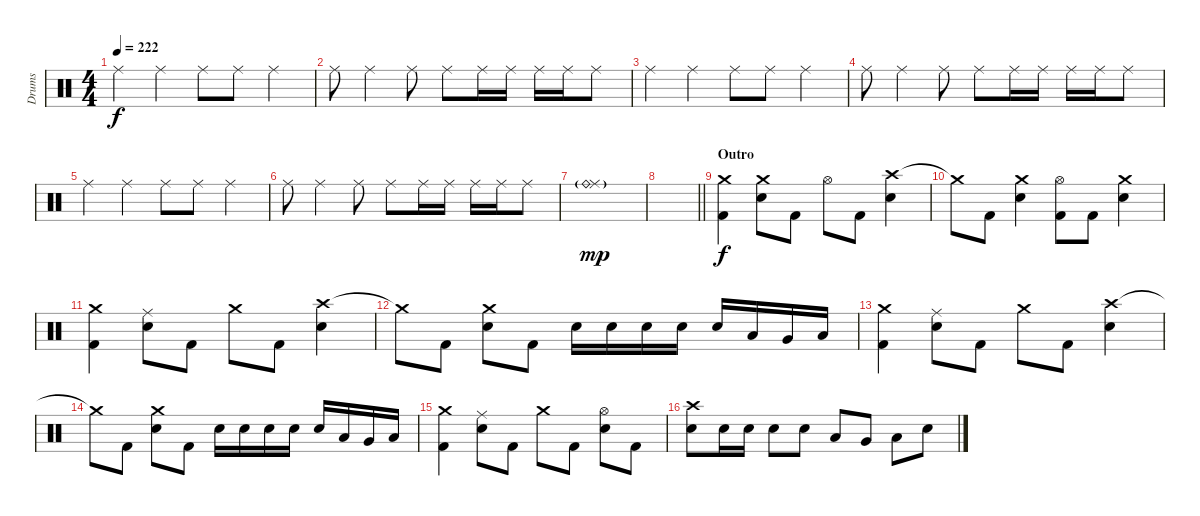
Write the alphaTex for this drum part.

\track ("Drums" "Drums") {instrument percussion}
\staff {score}
\articulation defaults
\ts (4 4)
\tempo 222
\clef neutral
\ks c "Ride (middle)".4{dy f} "Ride (middle)".4 "Ride (middle)".8 "Ride (middle)".8 "Ride (middle)".4
|
"Ride (middle)".8 "Ride (middle)".4 "Ride (middle)".8 "Ride (middle)".8 "Ride (middle)".16 "Ride (middle)".16 "Ride (middle)".16 "Ride (middle)".16 "Ride (middle)".8 |
"Ride (middle)".4 "Ride (middle)".4 "Ride (middle)".8 "Ride (middle)".8 "Ride (middle)".4 |
"Ride (middle)".8 "Ride (middle)".4 "Ride (middle)".8 "Ride (middle)".8 "Ride (middle)".16 "Ride (middle)".16 "Ride (middle)".16 "Ride (middle)".16 "Ride (middle)".8 |
"Ride (middle)".4 "Ride (middle)".4 "Ride (middle)".8 "Ride (middle)".8 "Ride (middle)".4 |
"Ride (middle)".8 "Ride (middle)".4 "Ride (middle)".8 "Ride (middle)".8 "Ride (middle)".16 "Ride (middle)".16 "Ride (middle)".16 "Ride (middle)".16 "Ride (middle)".8 |
("Ride (middle)" "Ride (bell)"{g}).1{dy mp volume 12} |
\barLineRight lightlight
|
\section ("" "Outro")
("Crash medium (hit)" "Kick (hit) 2").4{dy f} ("Crash medium (hit)" "Electric Snare (hit)").8 "Kick (hit) 2".8 "Hi-Hat (open)".8 "Kick (hit) 2".8 ("Crash high (hit)" "Electric Snare (hit)").4 |
"Crash medium (hit)"{t}.8 "Kick (hit) 2".8 ("Crash medium (hit)" "Electric Snare (hit)").4 ("Hi-Hat (open)" "Kick (hit) 2").8 "Kick (hit) 2".8 ("Crash medium (hit)" "Electric Snare (hit)").4 |
("Crash medium (hit)" "Kick (hit) 2").4 ("Ride (middle)" "Electric Snare (hit)").8 "Kick (hit) 2".8 "Crash medium (hit)".8 "Kick (hit) 2".8 ("Crash high (hit)" "Electric Snare (hit)").4 |
"Crash medium (hit)"{t}.8 "Kick (hit) 2".8 ("Crash medium (hit)" "Electric Snare (hit)").8 "Kick (hit) 2".8 "Electric Snare (hit)".16 "Electric Snare (hit)".16 "Electric Snare (hit)".16 "Electric Snare (hit)".16 "Electric Snare (hit)".16 "Low Tom (hit)".16 "Very Low Tom (hit)".16 "Low Floor Tom (hit)".16 |
("Crash medium (hit)" "Kick (hit) 2").4 ("Ride (middle)" "Electric Snare (hit)").8 "Kick (hit) 2".8 "Crash medium (hit)".8 "Kick (hit) 2".8 ("Crash high (hit)" "Electric Snare (hit)").4 |
"Crash medium (hit)"{t}.8 "Kick (hit) 2".8 ("Crash medium (hit)" "Electric Snare (hit)").8 "Kick (hit) 2".8 "Electric Snare (hit)".16 "Electric Snare (hit)".16 "Electric Snare (hit)".16 "Electric Snare (hit)".16 "Electric Snare (hit)".16 "Low Tom (hit)".16 "Very Low Tom (hit)".16 "Low Floor Tom (hit)".16 |
("Crash medium (hit)" "Kick (hit) 2").4 ("Ride (middle)" "Electric Snare (hit)").8 "Kick (hit) 2".8 "Crash medium (hit)".8 "Kick (hit) 2".8 ("Hi-Hat (open)" "Electric Snare (hit)").8 "Kick (hit) 2".8 |
("Crash high (hit)" "Electric Snare (hit)").8 "Electric Snare (hit)".16 "Electric Snare (hit)".16 "Electric Snare (hit)".8 "Electric Snare (hit)".8 "Low Tom (hit)".8 "Very Low Tom (hit)".8 "Low Floor Tom (hit)".8 "Electric Snare (hit)".8
